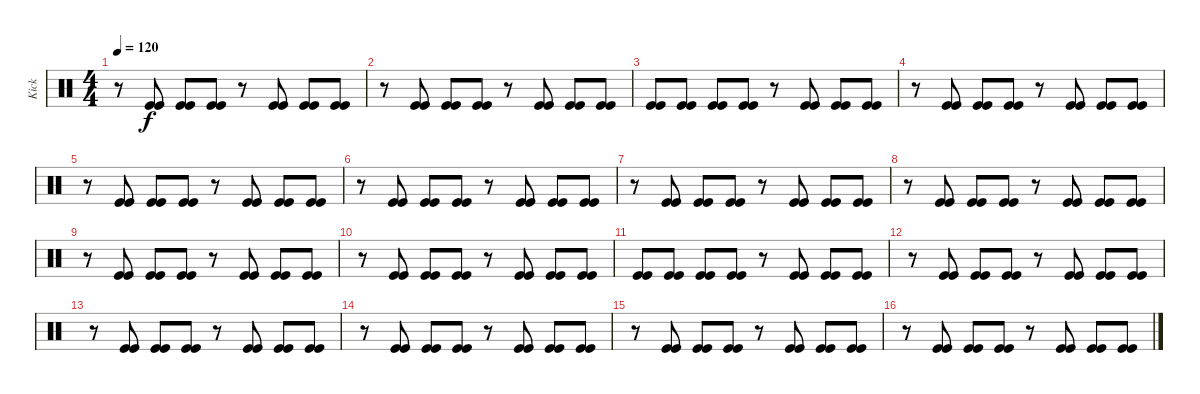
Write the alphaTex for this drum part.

\track ("Kick" "Kick") {instrument percussion}
\staff {score}
\articulation defaults
\ts (4 4)
\tempo 120
\clef neutral
\ks c
r.8{dy f} ("Kick (hit)" "Kick (hit)").8 ("Kick (hit)" "Kick (hit)").8 ("Kick (hit)" "Kick (hit)").8 r.8 ("Kick (hit)" "Kick (hit)").8 ("Kick (hit)" "Kick (hit)").8 ("Kick (hit)" "Kick (hit)").8 |
r.8 ("Kick (hit)" "Kick (hit)").8 ("Kick (hit)" "Kick (hit)").8 ("Kick (hit)" "Kick (hit)").8 r.8 ("Kick (hit)" "Kick (hit)").8 ("Kick (hit)" "Kick (hit)").8 ("Kick (hit)" "Kick (hit)").8 |
("Kick (hit)" "Kick (hit)").8 ("Kick (hit)" "Kick (hit)").8 ("Kick (hit)" "Kick (hit)").8 ("Kick (hit)" "Kick (hit)").8 r.8 ("Kick (hit)" "Kick (hit)").8 ("Kick (hit)" "Kick (hit)").8 ("Kick (hit)" "Kick (hit)").8 |
r.8 ("Kick (hit)" "Kick (hit)").8 ("Kick (hit)" "Kick (hit)").8 ("Kick (hit)" "Kick (hit)").8 r.8 ("Kick (hit)" "Kick (hit)").8 ("Kick (hit)" "Kick (hit)").8 ("Kick (hit)" "Kick (hit)").8 |
r.8 ("Kick (hit)" "Kick (hit)").8 ("Kick (hit)" "Kick (hit)").8 ("Kick (hit)" "Kick (hit)").8 r.8 ("Kick (hit)" "Kick (hit)").8 ("Kick (hit)" "Kick (hit)").8 ("Kick (hit)" "Kick (hit)").8 |
r.8 ("Kick (hit)" "Kick (hit)").8 ("Kick (hit)" "Kick (hit)").8 ("Kick (hit)" "Kick (hit)").8 r.8 ("Kick (hit)" "Kick (hit)").8 ("Kick (hit)" "Kick (hit)").8 ("Kick (hit)" "Kick (hit)").8 |
r.8 ("Kick (hit)" "Kick (hit)").8 ("Kick (hit)" "Kick (hit)").8 ("Kick (hit)" "Kick (hit)").8 r.8 ("Kick (hit)" "Kick (hit)").8 ("Kick (hit)" "Kick (hit)").8 ("Kick (hit)" "Kick (hit)").8 |
r.8 ("Kick (hit)" "Kick (hit)").8 ("Kick (hit)" "Kick (hit)").8 ("Kick (hit)" "Kick (hit)").8 r.8 ("Kick (hit)" "Kick (hit)").8 ("Kick (hit)" "Kick (hit)").8 ("Kick (hit)" "Kick (hit)").8 |
r.8 ("Kick (hit)" "Kick (hit)").8 ("Kick (hit)" "Kick (hit)").8 ("Kick (hit)" "Kick (hit)").8 r.8 ("Kick (hit)" "Kick (hit)").8 ("Kick (hit)" "Kick (hit)").8 ("Kick (hit)" "Kick (hit)").8 |
r.8 ("Kick (hit)" "Kick (hit)").8 ("Kick (hit)" "Kick (hit)").8 ("Kick (hit)" "Kick (hit)").8 r.8 ("Kick (hit)" "Kick (hit)").8 ("Kick (hit)" "Kick (hit)").8 ("Kick (hit)" "Kick (hit)").8 |
("Kick (hit)" "Kick (hit)").8 ("Kick (hit)" "Kick (hit)").8 ("Kick (hit)" "Kick (hit)").8 ("Kick (hit)" "Kick (hit)").8 r.8 ("Kick (hit)" "Kick (hit)").8 ("Kick (hit)" "Kick (hit)").8 ("Kick (hit)" "Kick (hit)").8 |
r.8 ("Kick (hit)" "Kick (hit)").8 ("Kick (hit)" "Kick (hit)").8 ("Kick (hit)" "Kick (hit)").8 r.8 ("Kick (hit)" "Kick (hit)").8 ("Kick (hit)" "Kick (hit)").8 ("Kick (hit)" "Kick (hit)").8 |
r.8 ("Kick (hit)" "Kick (hit)").8 ("Kick (hit)" "Kick (hit)").8 ("Kick (hit)" "Kick (hit)").8 r.8 ("Kick (hit)" "Kick (hit)").8 ("Kick (hit)" "Kick (hit)").8 ("Kick (hit)" "Kick (hit)").8 |
r.8 ("Kick (hit)" "Kick (hit)").8 ("Kick (hit)" "Kick (hit)").8 ("Kick (hit)" "Kick (hit)").8 r.8 ("Kick (hit)" "Kick (hit)").8 ("Kick (hit)" "Kick (hit)").8 ("Kick (hit)" "Kick (hit)").8 |
r.8 ("Kick (hit)" "Kick (hit)").8 ("Kick (hit)" "Kick (hit)").8 ("Kick (hit)" "Kick (hit)").8 r.8 ("Kick (hit)" "Kick (hit)").8 ("Kick (hit)" "Kick (hit)").8 ("Kick (hit)" "Kick (hit)").8 |
r.8 ("Kick (hit)" "Kick (hit)").8 ("Kick (hit)" "Kick (hit)").8 ("Kick (hit)" "Kick (hit)").8 r.8 ("Kick (hit)" "Kick (hit)").8 ("Kick (hit)" "Kick (hit)").8 ("Kick (hit)" "Kick (hit)").8
